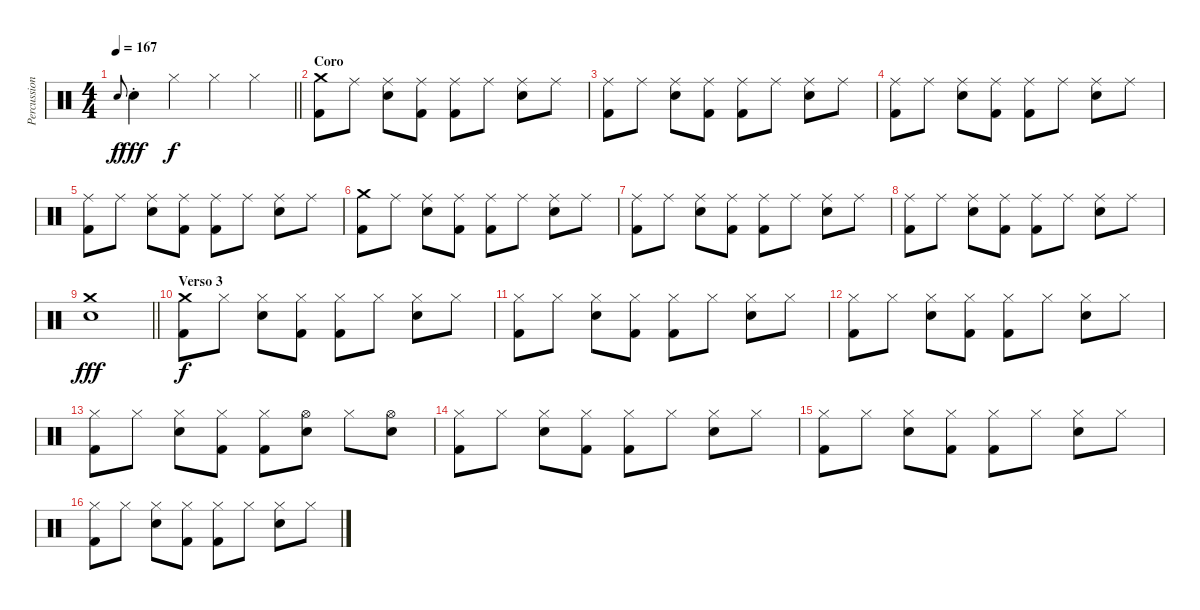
\track ("Percussion" "Percussion") {instrument percussion}
\staff {score}
\articulation defaults
\ts (4 4)
\tempo 167
\clef neutral
\barLineRight lightlight
\ks c "Snare (hit) 2"{h}.8{gr onbeat dy f} "Snare (hit) 2"{st}.4{dy fff} "Hi-Hat (closed)".4{dy f} "Hi-Hat (closed)".4 "Hi-Hat (closed)".4
|
\section ("" "Coro")
("Crash medium (hit)" "Kick (hit) 2").8 "Ride (middle)".8 ("Ride (middle)" "Snare (hit) 2").8 ("Ride (middle)" "Kick (hit) 2").8 ("Ride (middle)" "Kick (hit) 2").8 "Ride (middle)".8 ("Ride (middle)" "Snare (hit) 2").8 "Ride (middle)".8 |
("Ride (middle)" "Kick (hit) 2").8 "Ride (middle)".8 ("Ride (middle)" "Snare (hit) 2").8 ("Ride (middle)" "Kick (hit) 2").8 ("Ride (middle)" "Kick (hit) 2").8 "Ride (middle)".8 ("Ride (middle)" "Snare (hit) 2").8 "Ride (middle)".8 |
("Ride (middle)" "Kick (hit) 2").8 "Ride (middle)".8 ("Ride (middle)" "Snare (hit) 2").8 ("Ride (middle)" "Kick (hit) 2").8 ("Ride (middle)" "Kick (hit) 2").8 "Ride (middle)".8 ("Ride (middle)" "Snare (hit) 2").8 "Ride (middle)".8 |
("Ride (middle)" "Kick (hit) 2").8 "Ride (middle)".8 ("Ride (middle)" "Snare (hit) 2").8 ("Ride (middle)" "Kick (hit) 2").8 ("Ride (middle)" "Kick (hit) 2").8 "Ride (middle)".8 ("Ride (middle)" "Snare (hit) 2").8 "Ride (middle)".8 |
("Crash medium (hit)" "Kick (hit) 2").8 "Ride (middle)".8 ("Ride (middle)" "Snare (hit) 2").8 ("Ride (middle)" "Kick (hit) 2").8 ("Ride (middle)" "Kick (hit) 2").8 "Ride (middle)".8 ("Ride (middle)" "Snare (hit) 2").8 "Ride (middle)".8 |
("Ride (middle)" "Kick (hit) 2").8 "Ride (middle)".8 ("Ride (middle)" "Snare (hit) 2").8 ("Ride (middle)" "Kick (hit) 2").8 ("Ride (middle)" "Kick (hit) 2").8 "Ride (middle)".8 ("Ride (middle)" "Snare (hit) 2").8 "Ride (middle)".8 |
("Ride (middle)" "Kick (hit) 2").8 "Ride (middle)".8 ("Ride (middle)" "Snare (hit) 2").8 ("Ride (middle)" "Kick (hit) 2").8 ("Ride (middle)" "Kick (hit) 2").8 "Ride (middle)".8 ("Ride (middle)" "Snare (hit) 2").8 "Ride (middle)".8 |
\barLineRight lightlight
("Crash medium (hit)" "Snare (hit) 2").1{dy fff} |
\section ("" "Verso 3")
("Crash medium (hit)" "Kick (hit) 2").8{dy f} "Hi-Hat (closed)".8 ("Hi-Hat (closed)" "Snare (hit) 2").8 ("Hi-Hat (closed)" "Kick (hit) 2").8 ("Hi-Hat (closed)" "Kick (hit) 2").8 "Hi-Hat (closed)".8 ("Hi-Hat (closed)" "Snare (hit) 2").8 "Hi-Hat (closed)".8 |
("Hi-Hat (closed)" "Kick (hit) 2").8 "Hi-Hat (closed)".8 ("Hi-Hat (closed)" "Snare (hit) 2").8 ("Hi-Hat (closed)" "Kick (hit) 2").8 ("Hi-Hat (closed)" "Kick (hit) 2").8 "Hi-Hat (closed)".8 ("Hi-Hat (closed)" "Snare (hit) 2").8 "Hi-Hat (closed)".8 |
("Hi-Hat (closed)" "Kick (hit) 2").8 "Hi-Hat (closed)".8 ("Hi-Hat (closed)" "Snare (hit) 2").8 ("Hi-Hat (closed)" "Kick (hit) 2").8 ("Hi-Hat (closed)" "Kick (hit) 2").8 "Hi-Hat (closed)".8 ("Hi-Hat (closed)" "Snare (hit) 2").8 "Hi-Hat (closed)".8 |
("Hi-Hat (closed)" "Kick (hit) 2").8 "Hi-Hat (closed)".8 ("Hi-Hat (closed)" "Snare (hit) 2").8 ("Hi-Hat (closed)" "Kick (hit) 2").8 ("Hi-Hat (closed)" "Kick (hit) 2").8 ("Hi-Hat (open)" "Snare (hit) 2").8 "Hi-Hat (closed)".8 ("Hi-Hat (open)" "Snare (hit) 2").8 |
("Hi-Hat (closed)" "Kick (hit) 2").8 "Hi-Hat (closed)".8 ("Hi-Hat (closed)" "Snare (hit) 2").8 ("Hi-Hat (closed)" "Kick (hit) 2").8 ("Hi-Hat (closed)" "Kick (hit) 2").8 "Hi-Hat (closed)".8 ("Hi-Hat (closed)" "Snare (hit) 2").8 "Hi-Hat (closed)".8 |
("Hi-Hat (closed)" "Kick (hit) 2").8 "Hi-Hat (closed)".8 ("Hi-Hat (closed)" "Snare (hit) 2").8 ("Hi-Hat (closed)" "Kick (hit) 2").8 ("Hi-Hat (closed)" "Kick (hit) 2").8 "Hi-Hat (closed)".8 ("Hi-Hat (closed)" "Snare (hit) 2").8 "Hi-Hat (closed)".8 |
("Hi-Hat (closed)" "Kick (hit) 2").8 "Hi-Hat (closed)".8 ("Hi-Hat (closed)" "Snare (hit) 2").8 ("Hi-Hat (closed)" "Kick (hit) 2").8 ("Hi-Hat (closed)" "Kick (hit) 2").8 "Hi-Hat (closed)".8 ("Hi-Hat (closed)" "Snare (hit) 2").8 "Hi-Hat (closed)".8
